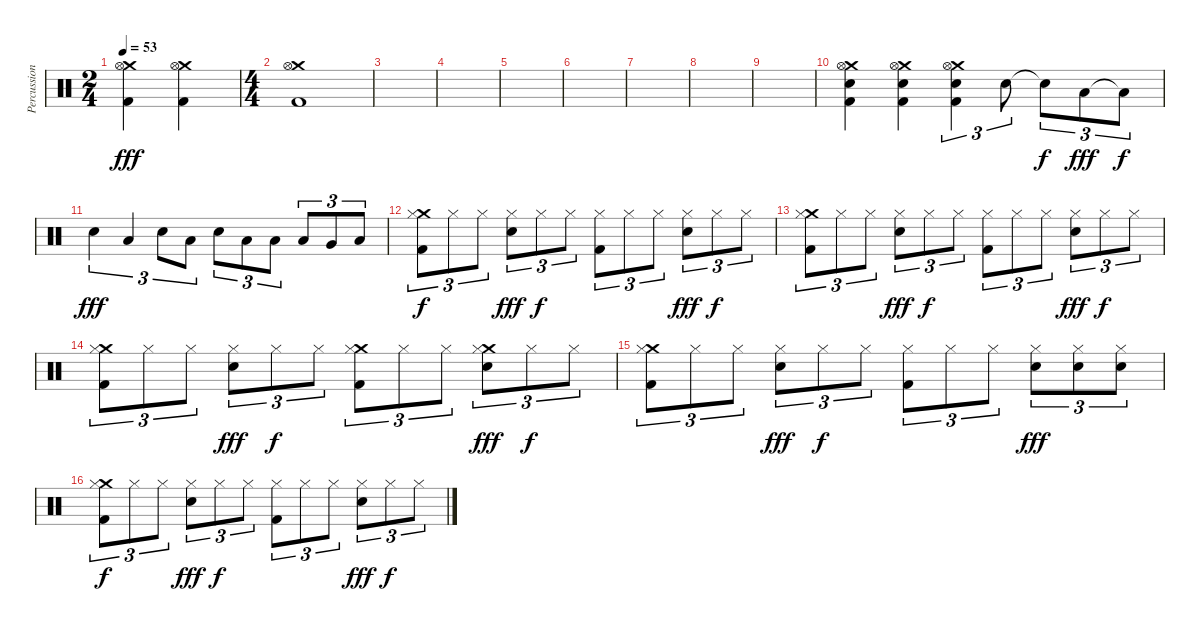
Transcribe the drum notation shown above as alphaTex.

\track ("Percussion" "Percussion") {instrument percussion}
\staff {score}
\articulation defaults
\ts (2 4)
\tempo 53
\clef neutral
\ks c
("Crash medium (hit)" "Kick (hit) 2" "Hi-Hat (open)").4{dy fff} ("Crash medium (hit)" "Kick (hit) 2" "Hi-Hat (open)").4 |
\ts (4 4)
("Crash medium (hit)" "Kick (hit) 2" "Hi-Hat (open)").1 |
|
|
|
|
|
|
|
("Crash medium (hit)" "Hi-Hat (open)" "Kick (hit) 2" "Snare (hit) 2").4 ("Crash medium (hit)" "Hi-Hat (open)" "Kick (hit) 2" "Snare (hit) 2").4 ("Crash medium (hit)" "Hi-Hat (open)" "Kick (hit) 2" "Snare (hit) 2").4{tu (3 2)} "Snare (hit) 2".8{tu (3 2)} "Snare (hit)"{t}.8{tu (3 2) dy f} "Low Tom (hit)".8{tu (3 2) dy fff} "Low Tom (hit)"{t}.8{tu (3 2) dy f} |
"Snare (hit) 2".4{tu (3 2) dy fff} "Low Tom (hit)".4{tu (3 2)} "Snare (hit) 2".8{tu (3 2)} "Low Tom (hit)".8{tu (3 2)} "Snare (hit) 2".8{tu (3 2)} "Low Tom (hit)".8{tu (3 2)} "Low Tom (hit)".8{tu (3 2)} "Low Tom (hit)".8{tu (3 2)} "Very Low Tom (hit)".8{tu (3 2)} "Low Floor Tom (hit)".8{tu (3 2)} |
("Crash medium (hit)" "Hi-Hat (closed)" "Kick (hit) 2").8{tu (3 2) dy f} "Hi-Hat (closed)".8{tu (3 2)} "Hi-Hat (closed)".8{tu (3 2)} ("Snare (hit) 2" "Hi-Hat (closed)").8{tu (3 2) dy fff} "Hi-Hat (closed)".8{tu (3 2) dy f} "Hi-Hat (closed)".8{tu (3 2)} ("Hi-Hat (closed)" "Kick (hit) 2").8{tu (3 2)} "Hi-Hat (closed)".8{tu (3 2)} "Hi-Hat (closed)".8{tu (3 2)} ("Snare (hit) 2" "Hi-Hat (closed)").8{tu (3 2) dy fff} "Hi-Hat (closed)".8{tu (3 2) dy f} "Hi-Hat (closed)".8{tu (3 2)} |
("Crash medium (hit)" "Hi-Hat (closed)" "Kick (hit) 2").8{tu (3 2)} "Hi-Hat (closed)".8{tu (3 2)} "Hi-Hat (closed)".8{tu (3 2)} ("Snare (hit) 2" "Hi-Hat (closed)").8{tu (3 2) dy fff} "Hi-Hat (closed)".8{tu (3 2) dy f} "Hi-Hat (closed)".8{tu (3 2)} ("Hi-Hat (closed)" "Kick (hit) 2").8{tu (3 2)} "Hi-Hat (closed)".8{tu (3 2)} "Hi-Hat (closed)".8{tu (3 2)} ("Snare (hit) 2" "Hi-Hat (closed)").8{tu (3 2) dy fff} "Hi-Hat (closed)".8{tu (3 2) dy f} "Hi-Hat (closed)".8{tu (3 2)} |
("Crash medium (hit)" "Hi-Hat (closed)" "Kick (hit) 2").8{tu (3 2)} "Hi-Hat (closed)".8{tu (3 2)} "Hi-Hat (closed)".8{tu (3 2)} ("Snare (hit) 2" "Hi-Hat (closed)").8{tu (3 2) dy fff} "Hi-Hat (closed)".8{tu (3 2) dy f} "Hi-Hat (closed)".8{tu (3 2)} ("Crash medium (hit)" "Hi-Hat (closed)" "Kick (hit) 2").8{tu (3 2)} "Hi-Hat (closed)".8{tu (3 2)} "Hi-Hat (closed)".8{tu (3 2)} ("Crash medium (hit)" "Snare (hit) 2" "Hi-Hat (closed)").8{tu (3 2) dy fff} "Hi-Hat (closed)".8{tu (3 2) dy f} "Hi-Hat (closed)".8{tu (3 2)} |
("Crash medium (hit)" "Hi-Hat (closed)" "Kick (hit) 2").8{tu (3 2)} "Hi-Hat (closed)".8{tu (3 2)} "Hi-Hat (closed)".8{tu (3 2)} ("Snare (hit) 2" "Hi-Hat (closed)").8{tu (3 2) dy fff} "Hi-Hat (closed)".8{tu (3 2) dy f} "Hi-Hat (closed)".8{tu (3 2)} ("Hi-Hat (closed)" "Kick (hit) 2").8{tu (3 2)} "Hi-Hat (closed)".8{tu (3 2)} "Hi-Hat (closed)".8{tu (3 2)} ("Snare (hit) 2" "Hi-Hat (closed)").8{tu (3 2) dy fff} ("Snare (hit) 2" "Hi-Hat (closed)").8{tu (3 2)} ("Snare (hit) 2" "Hi-Hat (closed)").8{tu (3 2)} |
("Crash medium (hit)" "Hi-Hat (closed)" "Kick (hit) 2").8{tu (3 2) dy f} "Hi-Hat (closed)".8{tu (3 2)} "Hi-Hat (closed)".8{tu (3 2)} ("Snare (hit) 2" "Hi-Hat (closed)").8{tu (3 2) dy fff} "Hi-Hat (closed)".8{tu (3 2) dy f} "Hi-Hat (closed)".8{tu (3 2)} ("Hi-Hat (closed)" "Kick (hit) 2").8{tu (3 2)} "Hi-Hat (closed)".8{tu (3 2)} "Hi-Hat (closed)".8{tu (3 2)} ("Snare (hit) 2" "Hi-Hat (closed)").8{tu (3 2) dy fff} "Hi-Hat (closed)".8{tu (3 2) dy f} "Hi-Hat (closed)".8{tu (3 2)}
